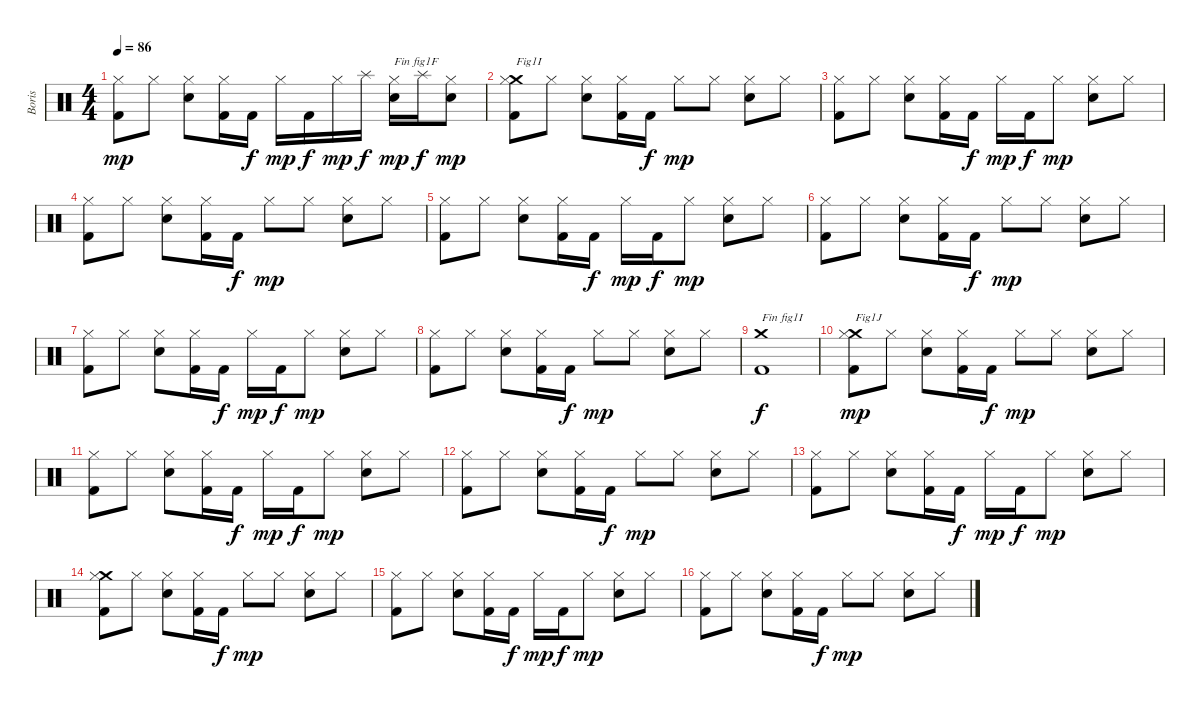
\track ("Boris" "Boris") {instrument percussion}
\staff {score}
\articulation defaults
\ts (4 4)
\tempo 86
\clef neutral
\ks c
("Kick (hit) 2" "Hi-Hat (closed)").8{dy mp} "Hi-Hat (closed)".8 ("Electric Snare (hit)" "Hi-Hat (closed)").8 ("Kick (hit) 2" "Hi-Hat (closed)").16 "Kick (hit) 2".16{dy f} "Hi-Hat (closed)".16{dy mp} "Kick (hit) 2".16{dy f} "Hi-Hat (closed)".16{dy mp} "Splash (hit)".16{dy f} ("Electric Snare (hit)" "Hi-Hat (closed)").16{txt "Fin fig1F" dy mp} "Splash (hit)".16{dy f} ("Electric Snare (hit)" "Hi-Hat (closed)").8{dy mp} |
("Kick (hit) 2" "Crash medium (hit)" "Hi-Hat (closed)").8{txt "Fig1I"} "Hi-Hat (closed)".8 ("Electric Snare (hit)" "Hi-Hat (closed)").8 ("Kick (hit) 2" "Hi-Hat (closed)").16 "Kick (hit) 2".16{dy f} "Hi-Hat (closed)".8{dy mp} "Hi-Hat (closed)".8 ("Electric Snare (hit)" "Hi-Hat (closed)").8 "Hi-Hat (closed)".8 |
("Kick (hit) 2" "Hi-Hat (closed)").8 "Hi-Hat (closed)".8 ("Electric Snare (hit)" "Hi-Hat (closed)").8 ("Kick (hit) 2" "Hi-Hat (closed)").16 "Kick (hit) 2".16{dy f} "Hi-Hat (closed)".16{dy mp} "Kick (hit) 2".16{dy f} "Hi-Hat (closed)".8{dy mp} ("Electric Snare (hit)" "Hi-Hat (closed)").8 "Hi-Hat (closed)".8 |
("Kick (hit) 2" "Hi-Hat (closed)").8 "Hi-Hat (closed)".8 ("Electric Snare (hit)" "Hi-Hat (closed)").8 ("Kick (hit) 2" "Hi-Hat (closed)").16 "Kick (hit) 2".16{dy f} "Hi-Hat (closed)".8{dy mp} "Hi-Hat (closed)".8 ("Electric Snare (hit)" "Hi-Hat (closed)").8 "Hi-Hat (closed)".8 |
("Kick (hit) 2" "Hi-Hat (closed)").8 "Hi-Hat (closed)".8 ("Electric Snare (hit)" "Hi-Hat (closed)").8 ("Kick (hit) 2" "Hi-Hat (closed)").16 "Kick (hit) 2".16{dy f} "Hi-Hat (closed)".16{dy mp} "Kick (hit) 2".16{dy f} "Hi-Hat (closed)".8{dy mp} ("Electric Snare (hit)" "Hi-Hat (closed)").8 "Hi-Hat (closed)".8 |
("Kick (hit) 2" "Hi-Hat (closed)").8 "Hi-Hat (closed)".8 ("Electric Snare (hit)" "Hi-Hat (closed)").8 ("Kick (hit) 2" "Hi-Hat (closed)").16 "Kick (hit) 2".16{dy f} "Hi-Hat (closed)".8{dy mp} "Hi-Hat (closed)".8 ("Electric Snare (hit)" "Hi-Hat (closed)").8 "Hi-Hat (closed)".8 |
("Kick (hit) 2" "Hi-Hat (closed)").8 "Hi-Hat (closed)".8 ("Electric Snare (hit)" "Hi-Hat (closed)").8 ("Kick (hit) 2" "Hi-Hat (closed)").16 "Kick (hit) 2".16{dy f} "Hi-Hat (closed)".16{dy mp} "Kick (hit) 2".16{dy f} "Hi-Hat (closed)".8{dy mp} ("Electric Snare (hit)" "Hi-Hat (closed)").8 "Hi-Hat (closed)".8 |
("Kick (hit) 2" "Hi-Hat (closed)").8 "Hi-Hat (closed)".8 ("Electric Snare (hit)" "Hi-Hat (closed)").8 ("Kick (hit) 2" "Hi-Hat (closed)").16 "Kick (hit) 2".16{dy f} "Hi-Hat (closed)".8{dy mp} "Hi-Hat (closed)".8 ("Electric Snare (hit)" "Hi-Hat (closed)").8 "Hi-Hat (closed)".8 |
("Kick (hit) 2" "Crash medium (hit)").1{txt "Fin fig1I" dy f} |
("Kick (hit) 2" "Crash medium (hit)" "Hi-Hat (closed)").8{txt "Fig1J" dy mp} "Hi-Hat (closed)".8 ("Electric Snare (hit)" "Hi-Hat (closed)").8 ("Kick (hit) 2" "Hi-Hat (closed)").16 "Kick (hit) 2".16{dy f} "Hi-Hat (closed)".8{dy mp} "Hi-Hat (closed)".8 ("Electric Snare (hit)" "Hi-Hat (closed)").8 "Hi-Hat (closed)".8 |
("Kick (hit) 2" "Hi-Hat (closed)").8 "Hi-Hat (closed)".8 ("Electric Snare (hit)" "Hi-Hat (closed)").8 ("Kick (hit) 2" "Hi-Hat (closed)").16 "Kick (hit) 2".16{dy f} "Hi-Hat (closed)".16{dy mp} "Kick (hit) 2".16{dy f} "Hi-Hat (closed)".8{dy mp} ("Electric Snare (hit)" "Hi-Hat (closed)").8 "Hi-Hat (closed)".8 |
("Kick (hit) 2" "Hi-Hat (closed)").8 "Hi-Hat (closed)".8 ("Electric Snare (hit)" "Hi-Hat (closed)").8 ("Kick (hit) 2" "Hi-Hat (closed)").16 "Kick (hit) 2".16{dy f} "Hi-Hat (closed)".8{dy mp} "Hi-Hat (closed)".8 ("Electric Snare (hit)" "Hi-Hat (closed)").8 "Hi-Hat (closed)".8 |
("Kick (hit) 2" "Hi-Hat (closed)").8 "Hi-Hat (closed)".8 ("Electric Snare (hit)" "Hi-Hat (closed)").8 ("Kick (hit) 2" "Hi-Hat (closed)").16 "Kick (hit) 2".16{dy f} "Hi-Hat (closed)".16{dy mp} "Kick (hit) 2".16{dy f} "Hi-Hat (closed)".8{dy mp} ("Electric Snare (hit)" "Hi-Hat (closed)").8 "Hi-Hat (closed)".8 |
("Kick (hit) 2" "Crash medium (hit)" "Hi-Hat (closed)").8 "Hi-Hat (closed)".8 ("Electric Snare (hit)" "Hi-Hat (closed)").8 ("Kick (hit) 2" "Hi-Hat (closed)").16 "Kick (hit) 2".16{dy f} "Hi-Hat (closed)".8{dy mp} "Hi-Hat (closed)".8 ("Electric Snare (hit)" "Hi-Hat (closed)").8 "Hi-Hat (closed)".8 |
("Kick (hit) 2" "Hi-Hat (closed)").8 "Hi-Hat (closed)".8 ("Electric Snare (hit)" "Hi-Hat (closed)").8 ("Kick (hit) 2" "Hi-Hat (closed)").16 "Kick (hit) 2".16{dy f} "Hi-Hat (closed)".16{dy mp} "Kick (hit) 2".16{dy f} "Hi-Hat (closed)".8{dy mp} ("Electric Snare (hit)" "Hi-Hat (closed)").8 "Hi-Hat (closed)".8 |
("Kick (hit) 2" "Hi-Hat (closed)").8 "Hi-Hat (closed)".8 ("Electric Snare (hit)" "Hi-Hat (closed)").8 ("Kick (hit) 2" "Hi-Hat (closed)").16 "Kick (hit) 2".16{dy f} "Hi-Hat (closed)".8{dy mp} "Hi-Hat (closed)".8 ("Electric Snare (hit)" "Hi-Hat (closed)").8 "Hi-Hat (closed)".8
